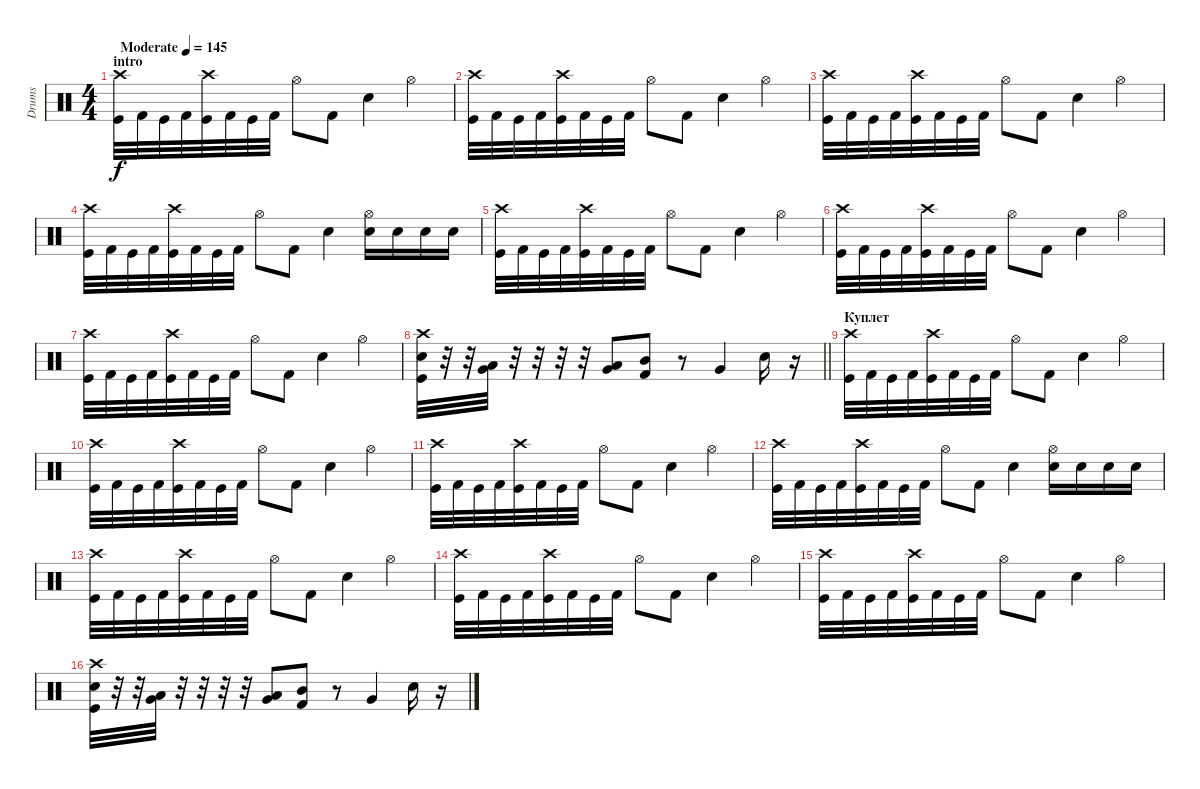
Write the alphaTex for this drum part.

\track ("Drums" "Drums") {instrument percussion}
\staff {score}
\articulation defaults
\ts (4 4)
\section ("" "intro")
\tempo (145 "Moderate")
\clef neutral
\ks c
("Crash high (hit)" "Kick (hit)").32{dy f} "Kick (hit) 2".32 "Kick (hit)".32 "Kick (hit) 2".32 ("Crash high (hit)" "Kick (hit)").32 "Kick (hit) 2".32 "Kick (hit)".32 "Kick (hit) 2".32 "Hi-Hat (open)".8 "Kick (hit) 2".8 "Snare (hit) 2".4 "Hi-Hat (open)".4 |
("Crash high (hit)" "Kick (hit)").32 "Kick (hit) 2".32 "Kick (hit)".32 "Kick (hit) 2".32 ("Crash high (hit)" "Kick (hit)").32 "Kick (hit) 2".32 "Kick (hit)".32 "Kick (hit) 2".32 "Hi-Hat (open)".8 "Kick (hit) 2".8 "Snare (hit) 2".4 "Hi-Hat (open)".4 |
("Crash high (hit)" "Kick (hit)").32 "Kick (hit) 2".32 "Kick (hit)".32 "Kick (hit) 2".32 ("Crash high (hit)" "Kick (hit)").32 "Kick (hit) 2".32 "Kick (hit)".32 "Kick (hit) 2".32 "Hi-Hat (open)".8 "Kick (hit) 2".8 "Snare (hit) 2".4 "Hi-Hat (open)".4 |
("Crash high (hit)" "Kick (hit)").32 "Kick (hit) 2".32 "Kick (hit)".32 "Kick (hit) 2".32 ("Crash high (hit)" "Kick (hit)").32 "Kick (hit) 2".32 "Kick (hit)".32 "Kick (hit) 2".32 "Hi-Hat (open)".8 "Kick (hit) 2".8 "Snare (hit) 2".4 ("Hi-Hat (open)" "Snare (hit) 2").16 "Snare (hit) 2".16 "Snare (hit) 2".16 "Snare (hit) 2".16 |
("Crash high (hit)" "Kick (hit)").32 "Kick (hit) 2".32 "Kick (hit)".32 "Kick (hit) 2".32 ("Crash high (hit)" "Kick (hit)").32 "Kick (hit) 2".32 "Kick (hit)".32 "Kick (hit) 2".32 "Hi-Hat (open)".8 "Kick (hit) 2".8 "Snare (hit) 2".4 "Hi-Hat (open)".4 |
("Crash high (hit)" "Kick (hit)").32 "Kick (hit) 2".32 "Kick (hit)".32 "Kick (hit) 2".32 ("Crash high (hit)" "Kick (hit)").32 "Kick (hit) 2".32 "Kick (hit)".32 "Kick (hit) 2".32 "Hi-Hat (open)".8 "Kick (hit) 2".8 "Snare (hit) 2".4 "Hi-Hat (open)".4 |
("Crash high (hit)" "Kick (hit)").32 "Kick (hit) 2".32 "Kick (hit)".32 "Kick (hit) 2".32 ("Crash high (hit)" "Kick (hit)").32 "Kick (hit) 2".32 "Kick (hit)".32 "Kick (hit) 2".32 "Hi-Hat (open)".8 "Kick (hit) 2".8 "Snare (hit) 2".4 "Hi-Hat (open)".4 |
\barLineRight lightlight
("Crash high (hit)" "Snare (hit) 2" "Kick (hit)").32 r.32 r.32 ("Low Tom (hit)" "Very Low Tom (hit)").32 r.32 r.32 r.32 r.32 ("Low Tom (hit)" "Very Low Tom (hit)").8 ("Mid Tom (hit)" "Kick (hit) 2").8 r.8 "Very Low Tom (hit)".4 "Snare (hit) 2".16 r.16 |
\section ("" "Куплет")
("Crash high (hit)" "Kick (hit)").32 "Kick (hit) 2".32 "Kick (hit)".32 "Kick (hit) 2".32 ("Crash high (hit)" "Kick (hit)").32 "Kick (hit) 2".32 "Kick (hit)".32 "Kick (hit) 2".32 "Hi-Hat (open)".8 "Kick (hit) 2".8 "Snare (hit) 2".4 "Hi-Hat (open)".4 |
("Crash high (hit)" "Kick (hit)").32 "Kick (hit) 2".32 "Kick (hit)".32 "Kick (hit) 2".32 ("Crash high (hit)" "Kick (hit)").32 "Kick (hit) 2".32 "Kick (hit)".32 "Kick (hit) 2".32 "Hi-Hat (open)".8 "Kick (hit) 2".8 "Snare (hit) 2".4 "Hi-Hat (open)".4 |
("Crash high (hit)" "Kick (hit)").32 "Kick (hit) 2".32 "Kick (hit)".32 "Kick (hit) 2".32 ("Crash high (hit)" "Kick (hit)").32 "Kick (hit) 2".32 "Kick (hit)".32 "Kick (hit) 2".32 "Hi-Hat (open)".8 "Kick (hit) 2".8 "Snare (hit) 2".4 "Hi-Hat (open)".4 |
("Crash high (hit)" "Kick (hit)").32 "Kick (hit) 2".32 "Kick (hit)".32 "Kick (hit) 2".32 ("Crash high (hit)" "Kick (hit)").32 "Kick (hit) 2".32 "Kick (hit)".32 "Kick (hit) 2".32 "Hi-Hat (open)".8 "Kick (hit) 2".8 "Snare (hit) 2".4 ("Hi-Hat (open)" "Snare (hit) 2").16 "Snare (hit) 2".16 "Snare (hit) 2".16 "Snare (hit) 2".16 |
("Crash high (hit)" "Kick (hit)").32 "Kick (hit) 2".32 "Kick (hit)".32 "Kick (hit) 2".32 ("Crash high (hit)" "Kick (hit)").32 "Kick (hit) 2".32 "Kick (hit)".32 "Kick (hit) 2".32 "Hi-Hat (open)".8 "Kick (hit) 2".8 "Snare (hit) 2".4 "Hi-Hat (open)".4 |
("Crash high (hit)" "Kick (hit)").32 "Kick (hit) 2".32 "Kick (hit)".32 "Kick (hit) 2".32 ("Crash high (hit)" "Kick (hit)").32 "Kick (hit) 2".32 "Kick (hit)".32 "Kick (hit) 2".32 "Hi-Hat (open)".8 "Kick (hit) 2".8 "Snare (hit) 2".4 "Hi-Hat (open)".4 |
("Crash high (hit)" "Kick (hit)").32 "Kick (hit) 2".32 "Kick (hit)".32 "Kick (hit) 2".32 ("Crash high (hit)" "Kick (hit)").32 "Kick (hit) 2".32 "Kick (hit)".32 "Kick (hit) 2".32 "Hi-Hat (open)".8 "Kick (hit) 2".8 "Snare (hit) 2".4 "Hi-Hat (open)".4 |
("Crash high (hit)" "Snare (hit) 2" "Kick (hit)").32 r.32 r.32 ("Low Tom (hit)" "Very Low Tom (hit)").32 r.32 r.32 r.32 r.32 ("Low Tom (hit)" "Very Low Tom (hit)").8 ("Mid Tom (hit)" "Kick (hit) 2").8 r.8 "Very Low Tom (hit)".4 "Snare (hit) 2".16 r.16
